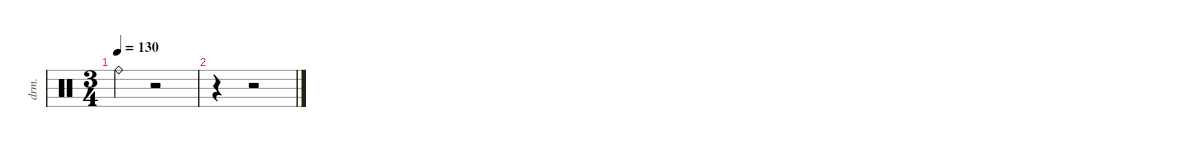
\defaultSystemsLayout 4
\hideDynamics
\bracketExtendMode nobrackets
\otherSystemsTrackNameOrientation horizontal
\track ("Percussion" "drm.") {instrument percussion}
\staff {score}
\articulation defaults
\ts (3 4)
\tempo 130
\clef neutral
\ks c "Ride (bell)".4{dy f beam Down}
r.2{beam Down} |
r.4{beam Down} r.2{beam Down}
